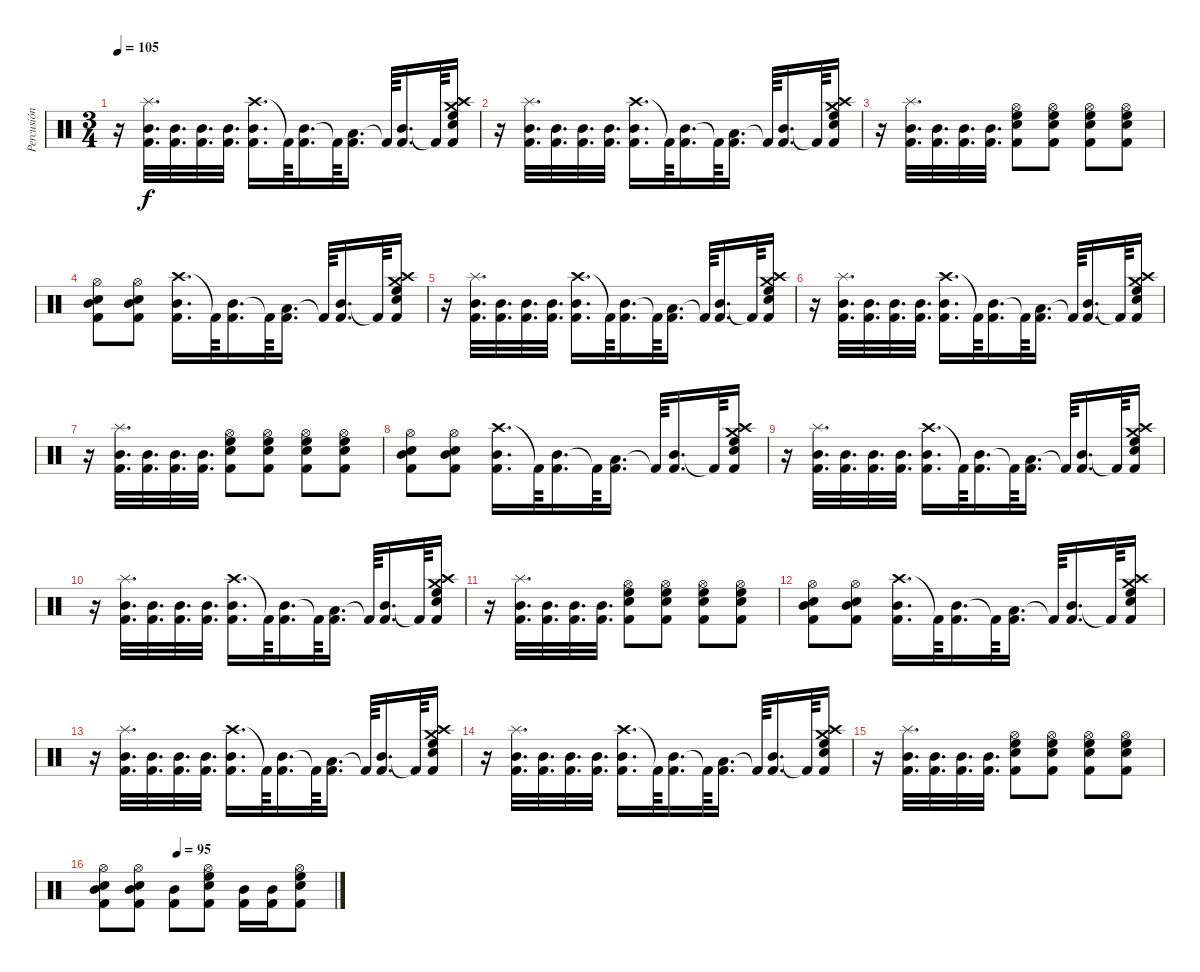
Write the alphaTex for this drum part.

\track ("Percusión" "Percusión") {instrument percussion}
\staff {score}
\articulation defaults
\ts (3 4)
\tempo 105
\clef neutral
\ks c
r.16{dy f} ("Splash (hit)" "Mid Tom (hit)" "Kick (hit) 2").32{d} ("Mid Tom (hit)" "Kick (hit) 2").32{d} ("Mid Tom (hit)" "Kick (hit) 2").32{d} ("Mid Tom (hit)" "Kick (hit) 2").32{d} ("Crash high (hit)" "Mid Tom (hit)" "Kick (hit) 2").16{d} "Kick (hit) 2"{t}.64 ("Mid Tom (hit)" "Kick (hit) 2").16{d} "Kick (hit) 2"{t}.64 ("Low Tom (hit)" "Kick (hit) 2").16{d} "Kick (hit) 2"{t}.64 ("Mid Tom (hit)" "Kick (hit) 2").16{d} "Kick (hit) 2"{t}.64 ("Crash medium (hit)" "Crash high (hit)" "High Floor Tom (hit)" "Snare (hit) 2" "Kick (hit) 2").16 |
r.16 ("Splash (hit)" "Mid Tom (hit)" "Kick (hit) 2").32{d} ("Mid Tom (hit)" "Kick (hit) 2").32{d} ("Mid Tom (hit)" "Kick (hit) 2").32{d} ("Mid Tom (hit)" "Kick (hit) 2").32{d} ("Crash high (hit)" "Mid Tom (hit)" "Kick (hit) 2").16{d} "Kick (hit) 2"{t}.64 ("Mid Tom (hit)" "Kick (hit) 2").16{d} "Kick (hit) 2"{t}.64 ("Low Tom (hit)" "Kick (hit) 2").16{d} "Kick (hit) 2"{t}.64 ("Mid Tom (hit)" "Kick (hit) 2").16{d} "Kick (hit) 2"{t}.64 ("Crash medium (hit)" "Crash high (hit)" "High Floor Tom (hit)" "Snare (hit) 2" "Kick (hit) 2").16 |
r.16 ("Splash (hit)" "Mid Tom (hit)" "Kick (hit) 2").32{d} ("Mid Tom (hit)" "Kick (hit) 2").32{d} ("Mid Tom (hit)" "Kick (hit) 2").32{d} ("Mid Tom (hit)" "Kick (hit) 2").32{d} ("Hi-Hat (open)" "High Floor Tom (hit)" "Snare (hit) 2" "Kick (hit) 2").8 ("Hi-Hat (open)" "High Floor Tom (hit)" "Snare (hit) 2" "Kick (hit) 2").8 ("Hi-Hat (open)" "High Floor Tom (hit)" "Snare (hit) 2" "Kick (hit) 2").8 ("Hi-Hat (open)" "High Floor Tom (hit)" "Snare (hit) 2" "Kick (hit) 2").8 |
("Hi-Hat (open)" "Mid Tom (hit)" "Snare (hit) 2" "Kick (hit) 2").8 ("Hi-Hat (open)" "Mid Tom (hit)" "Snare (hit) 2" "Kick (hit) 2").8 ("Crash high (hit)" "Mid Tom (hit)" "Kick (hit) 2").16{d} "Kick (hit) 2"{t}.64 ("Mid Tom (hit)" "Kick (hit) 2").16{d} "Kick (hit) 2"{t}.64 ("Low Tom (hit)" "Kick (hit) 2").16{d} "Kick (hit) 2"{t}.64 ("Mid Tom (hit)" "Kick (hit) 2").16{d} "Kick (hit) 2"{t}.64 ("Crash medium (hit)" "Crash high (hit)" "High Floor Tom (hit)" "Snare (hit) 2" "Kick (hit) 2").16 |
r.16 ("Splash (hit)" "Mid Tom (hit)" "Kick (hit) 2").32{d} ("Mid Tom (hit)" "Kick (hit) 2").32{d} ("Mid Tom (hit)" "Kick (hit) 2").32{d} ("Mid Tom (hit)" "Kick (hit) 2").32{d} ("Crash high (hit)" "Mid Tom (hit)" "Kick (hit) 2").16{d} "Kick (hit) 2"{t}.64 ("Mid Tom (hit)" "Kick (hit) 2").16{d} "Kick (hit) 2"{t}.64 ("Low Tom (hit)" "Kick (hit) 2").16{d} "Kick (hit) 2"{t}.64 ("Mid Tom (hit)" "Kick (hit) 2").16{d} "Kick (hit) 2"{t}.64 ("Crash medium (hit)" "Crash high (hit)" "High Floor Tom (hit)" "Snare (hit) 2" "Kick (hit) 2").16 |
r.16 ("Splash (hit)" "Mid Tom (hit)" "Kick (hit) 2").32{d} ("Mid Tom (hit)" "Kick (hit) 2").32{d} ("Mid Tom (hit)" "Kick (hit) 2").32{d} ("Mid Tom (hit)" "Kick (hit) 2").32{d} ("Crash high (hit)" "Mid Tom (hit)" "Kick (hit) 2").16{d} "Kick (hit) 2"{t}.64 ("Mid Tom (hit)" "Kick (hit) 2").16{d} "Kick (hit) 2"{t}.64 ("Low Tom (hit)" "Kick (hit) 2").16{d} "Kick (hit) 2"{t}.64 ("Mid Tom (hit)" "Kick (hit) 2").16{d} "Kick (hit) 2"{t}.64 ("Crash medium (hit)" "Crash high (hit)" "High Floor Tom (hit)" "Snare (hit) 2" "Kick (hit) 2").16 |
r.16 ("Splash (hit)" "Mid Tom (hit)" "Kick (hit) 2").32{d} ("Mid Tom (hit)" "Kick (hit) 2").32{d} ("Mid Tom (hit)" "Kick (hit) 2").32{d} ("Mid Tom (hit)" "Kick (hit) 2").32{d} ("Hi-Hat (open)" "High Floor Tom (hit)" "Snare (hit) 2" "Kick (hit) 2").8 ("Hi-Hat (open)" "High Floor Tom (hit)" "Snare (hit) 2" "Kick (hit) 2").8 ("Hi-Hat (open)" "High Floor Tom (hit)" "Snare (hit) 2" "Kick (hit) 2").8 ("Hi-Hat (open)" "High Floor Tom (hit)" "Snare (hit) 2" "Kick (hit) 2").8 |
("Hi-Hat (open)" "Mid Tom (hit)" "Snare (hit) 2" "Kick (hit) 2").8 ("Hi-Hat (open)" "Mid Tom (hit)" "Snare (hit) 2" "Kick (hit) 2").8 ("Crash high (hit)" "Mid Tom (hit)" "Kick (hit) 2").16{d} "Kick (hit) 2"{t}.64 ("Mid Tom (hit)" "Kick (hit) 2").16{d} "Kick (hit) 2"{t}.64 ("Low Tom (hit)" "Kick (hit) 2").16{d} "Kick (hit) 2"{t}.64 ("Mid Tom (hit)" "Kick (hit) 2").16{d} "Kick (hit) 2"{t}.64 ("Crash medium (hit)" "Crash high (hit)" "High Floor Tom (hit)" "Snare (hit) 2" "Kick (hit) 2").16 |
r.16 ("Splash (hit)" "Mid Tom (hit)" "Kick (hit) 2").32{d} ("Mid Tom (hit)" "Kick (hit) 2").32{d} ("Mid Tom (hit)" "Kick (hit) 2").32{d} ("Mid Tom (hit)" "Kick (hit) 2").32{d} ("Crash high (hit)" "Mid Tom (hit)" "Kick (hit) 2").16{d} "Kick (hit) 2"{t}.64 ("Mid Tom (hit)" "Kick (hit) 2").16{d} "Kick (hit) 2"{t}.64 ("Low Tom (hit)" "Kick (hit) 2").16{d} "Kick (hit) 2"{t}.64 ("Mid Tom (hit)" "Kick (hit) 2").16{d} "Kick (hit) 2"{t}.64 ("Crash medium (hit)" "Crash high (hit)" "High Floor Tom (hit)" "Snare (hit) 2" "Kick (hit) 2").16 |
r.16 ("Splash (hit)" "Mid Tom (hit)" "Kick (hit) 2").32{d} ("Mid Tom (hit)" "Kick (hit) 2").32{d} ("Mid Tom (hit)" "Kick (hit) 2").32{d} ("Mid Tom (hit)" "Kick (hit) 2").32{d} ("Crash high (hit)" "Mid Tom (hit)" "Kick (hit) 2").16{d} "Kick (hit) 2"{t}.64 ("Mid Tom (hit)" "Kick (hit) 2").16{d} "Kick (hit) 2"{t}.64 ("Low Tom (hit)" "Kick (hit) 2").16{d} "Kick (hit) 2"{t}.64 ("Mid Tom (hit)" "Kick (hit) 2").16{d} "Kick (hit) 2"{t}.64 ("Crash medium (hit)" "Crash high (hit)" "High Floor Tom (hit)" "Snare (hit) 2" "Kick (hit) 2").16 |
r.16 ("Splash (hit)" "Mid Tom (hit)" "Kick (hit) 2").32{d} ("Mid Tom (hit)" "Kick (hit) 2").32{d} ("Mid Tom (hit)" "Kick (hit) 2").32{d} ("Mid Tom (hit)" "Kick (hit) 2").32{d} ("Hi-Hat (open)" "High Floor Tom (hit)" "Snare (hit) 2" "Kick (hit) 2").8 ("Hi-Hat (open)" "High Floor Tom (hit)" "Snare (hit) 2" "Kick (hit) 2").8 ("Hi-Hat (open)" "High Floor Tom (hit)" "Snare (hit) 2" "Kick (hit) 2").8 ("Hi-Hat (open)" "High Floor Tom (hit)" "Snare (hit) 2" "Kick (hit) 2").8 |
("Hi-Hat (open)" "Mid Tom (hit)" "Snare (hit) 2" "Kick (hit) 2").8 ("Hi-Hat (open)" "Mid Tom (hit)" "Snare (hit) 2" "Kick (hit) 2").8 ("Crash high (hit)" "Mid Tom (hit)" "Kick (hit) 2").16{d} "Kick (hit) 2"{t}.64 ("Mid Tom (hit)" "Kick (hit) 2").16{d} "Kick (hit) 2"{t}.64 ("Low Tom (hit)" "Kick (hit) 2").16{d} "Kick (hit) 2"{t}.64 ("Mid Tom (hit)" "Kick (hit) 2").16{d} "Kick (hit) 2"{t}.64 ("Crash medium (hit)" "Crash high (hit)" "High Floor Tom (hit)" "Snare (hit) 2" "Kick (hit) 2").16 |
r.16 ("Splash (hit)" "Mid Tom (hit)" "Kick (hit) 2").32{d} ("Mid Tom (hit)" "Kick (hit) 2").32{d} ("Mid Tom (hit)" "Kick (hit) 2").32{d} ("Mid Tom (hit)" "Kick (hit) 2").32{d} ("Crash high (hit)" "Mid Tom (hit)" "Kick (hit) 2").16{d} "Kick (hit) 2"{t}.64 ("Mid Tom (hit)" "Kick (hit) 2").16{d} "Kick (hit) 2"{t}.64 ("Low Tom (hit)" "Kick (hit) 2").16{d} "Kick (hit) 2"{t}.64 ("Mid Tom (hit)" "Kick (hit) 2").16{d} "Kick (hit) 2"{t}.64 ("Crash medium (hit)" "Crash high (hit)" "High Floor Tom (hit)" "Snare (hit) 2" "Kick (hit) 2").16 |
r.16 ("Splash (hit)" "Mid Tom (hit)" "Kick (hit) 2").32{d} ("Mid Tom (hit)" "Kick (hit) 2").32{d} ("Mid Tom (hit)" "Kick (hit) 2").32{d} ("Mid Tom (hit)" "Kick (hit) 2").32{d} ("Crash high (hit)" "Mid Tom (hit)" "Kick (hit) 2").16{d} "Kick (hit) 2"{t}.64 ("Mid Tom (hit)" "Kick (hit) 2").16{d} "Kick (hit) 2"{t}.64 ("Low Tom (hit)" "Kick (hit) 2").16{d} "Kick (hit) 2"{t}.64 ("Mid Tom (hit)" "Kick (hit) 2").16{d} "Kick (hit) 2"{t}.64 ("Crash medium (hit)" "Crash high (hit)" "High Floor Tom (hit)" "Snare (hit) 2" "Kick (hit) 2").16 |
r.16 ("Splash (hit)" "Mid Tom (hit)" "Kick (hit) 2").32{d} ("Mid Tom (hit)" "Kick (hit) 2").32{d} ("Mid Tom (hit)" "Kick (hit) 2").32{d} ("Mid Tom (hit)" "Kick (hit) 2").32{d} ("Hi-Hat (open)" "High Floor Tom (hit)" "Snare (hit) 2" "Kick (hit) 2").8 ("Hi-Hat (open)" "High Floor Tom (hit)" "Snare (hit) 2" "Kick (hit) 2").8 ("Hi-Hat (open)" "High Floor Tom (hit)" "Snare (hit) 2" "Kick (hit) 2").8 ("Hi-Hat (open)" "High Floor Tom (hit)" "Snare (hit) 2" "Kick (hit) 2").8 |
\tempo (95 0.3333333333333333)
("Hi-Hat (open)" "Mid Tom (hit)" "Snare (hit) 2" "Kick (hit) 2").8 ("Hi-Hat (open)" "Mid Tom (hit)" "Snare (hit) 2" "Kick (hit) 2").8 ("Mid Tom (hit)" "Kick (hit) 2").8 ("Hi-Hat (open)" "High Floor Tom (hit)" "Snare (hit) 2" "Kick (hit) 2").8 ("Mid Tom (hit)" "Kick (hit) 2").16 ("Mid Tom (hit)" "Kick (hit) 2").16 ("Hi-Hat (open)" "High Floor Tom (hit)" "Snare (hit) 2" "Kick (hit) 2").8
